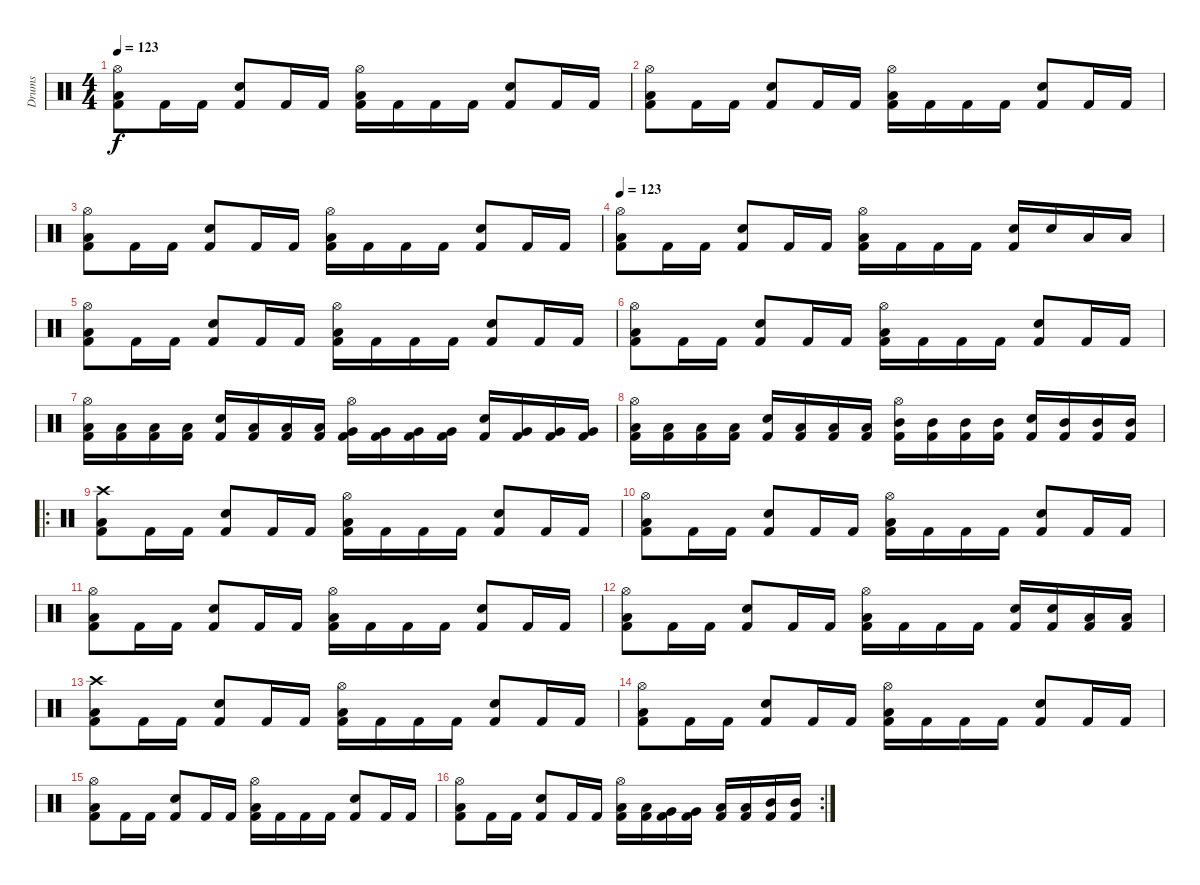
\track ("Drums" "Drums") {instrument percussion}
\staff {score}
\articulation defaults
\ts (4 4)
\tempo 123
\clef neutral
\ks c
("Hi-Hat (open)" "Low Floor Tom (hit)" "Kick (hit) 2").8{dy f} "Kick (hit) 2".16 "Kick (hit) 2".16 ("Snare (hit) 2" "Kick (hit) 2").8 "Kick (hit) 2".16 "Kick (hit) 2".16 ("Hi-Hat (open)" "Low Floor Tom (hit)" "Kick (hit) 2").16 "Kick (hit) 2".16 "Kick (hit) 2".16 "Kick (hit) 2".16 ("Snare (hit) 2" "Kick (hit) 2").8 "Kick (hit) 2".16 "Kick (hit) 2".16 |
("Hi-Hat (open)" "Low Floor Tom (hit)" "Kick (hit) 2").8 "Kick (hit) 2".16 "Kick (hit) 2".16 ("Snare (hit) 2" "Kick (hit) 2").8 "Kick (hit) 2".16 "Kick (hit) 2".16 ("Hi-Hat (open)" "Low Floor Tom (hit)" "Kick (hit) 2").16 "Kick (hit) 2".16 "Kick (hit) 2".16 "Kick (hit) 2".16 ("Snare (hit) 2" "Kick (hit) 2").8 "Kick (hit) 2".16 "Kick (hit) 2".16 |
("Hi-Hat (open)" "Low Floor Tom (hit)" "Kick (hit) 2").8 "Kick (hit) 2".16 "Kick (hit) 2".16 ("Snare (hit) 2" "Kick (hit) 2").8 "Kick (hit) 2".16 "Kick (hit) 2".16 ("Hi-Hat (open)" "Low Floor Tom (hit)" "Kick (hit) 2").16 "Kick (hit) 2".16 "Kick (hit) 2".16 "Kick (hit) 2".16 ("Snare (hit) 2" "Kick (hit) 2").8 "Kick (hit) 2".16 "Kick (hit) 2".16 |
\tempo 123
("Hi-Hat (open)" "Low Floor Tom (hit)" "Kick (hit) 2").8 "Kick (hit) 2".16 "Kick (hit) 2".16 ("Snare (hit) 2" "Kick (hit) 2").8 "Kick (hit) 2".16 "Kick (hit) 2".16 ("Hi-Hat (open)" "Low Floor Tom (hit)" "Kick (hit) 2").16 "Kick (hit) 2".16 "Kick (hit) 2".16 "Kick (hit) 2".16 ("Snare (hit) 2" "Kick (hit) 2").16 "Snare (hit) 2".16 "Low Tom (hit)".16 "Low Tom (hit)".16 |
("Hi-Hat (open)" "Low Floor Tom (hit)" "Kick (hit) 2").8 "Kick (hit) 2".16 "Kick (hit) 2".16 ("Snare (hit) 2" "Kick (hit) 2").8 "Kick (hit) 2".16 "Kick (hit) 2".16 ("Hi-Hat (open)" "Low Floor Tom (hit)" "Kick (hit) 2").16 "Kick (hit) 2".16 "Kick (hit) 2".16 "Kick (hit) 2".16 ("Snare (hit) 2" "Kick (hit) 2").8 "Kick (hit) 2".16 "Kick (hit) 2".16 |
("Hi-Hat (open)" "Low Floor Tom (hit)" "Kick (hit) 2").8 "Kick (hit) 2".16 "Kick (hit) 2".16 ("Snare (hit) 2" "Kick (hit) 2").8 "Kick (hit) 2".16 "Kick (hit) 2".16 ("Hi-Hat (open)" "Low Floor Tom (hit)" "Kick (hit) 2").16 "Kick (hit) 2".16 "Kick (hit) 2".16 "Kick (hit) 2".16 ("Snare (hit) 2" "Kick (hit) 2").8 "Kick (hit) 2".16 "Kick (hit) 2".16 |
("Hi-Hat (open)" "Low Floor Tom (hit)" "Kick (hit) 2").16 ("Low Floor Tom (hit)" "Kick (hit) 2").16 ("Low Floor Tom (hit)" "Kick (hit) 2").16 ("Low Floor Tom (hit)" "Kick (hit) 2").16 ("Snare (hit) 2" "Kick (hit) 2").16 ("Low Floor Tom (hit)" "Kick (hit) 2").16 ("Low Floor Tom (hit)" "Kick (hit) 2").16 ("Low Floor Tom (hit)" "Kick (hit) 2").16 ("Hi-Hat (open)" "Very Low Tom (hit)" "Kick (hit) 2").16 ("Very Low Tom (hit)" "Kick (hit) 2").16 ("Very Low Tom (hit)" "Kick (hit) 2").16 ("Very Low Tom (hit)" "Kick (hit) 2").16 ("Snare (hit) 2" "Kick (hit) 2").16 ("Very Low Tom (hit)" "Kick (hit) 2").16 ("Very Low Tom (hit)" "Kick (hit) 2").16 ("Very Low Tom (hit)" "Kick (hit) 2").16 |
("Hi-Hat (open)" "Low Tom (hit)" "Kick (hit) 2").16 ("Low Tom (hit)" "Kick (hit) 2").16 ("Low Tom (hit)" "Kick (hit) 2").16 ("Low Tom (hit)" "Kick (hit) 2").16 ("Snare (hit) 2" "Kick (hit) 2").16 ("Low Tom (hit)" "Kick (hit) 2").16 ("Low Tom (hit)" "Kick (hit) 2").16 ("Low Tom (hit)" "Kick (hit) 2").16 ("Hi-Hat (open)" "Mid Tom (hit)" "Kick (hit) 2").16 ("Mid Tom (hit)" "Kick (hit) 2").16 ("Mid Tom (hit)" "Kick (hit) 2").16 ("Mid Tom (hit)" "Kick (hit) 2").16 ("Snare (hit) 2" "Kick (hit) 2").16 ("Mid Tom (hit)" "Kick (hit) 2").16 ("Mid Tom (hit)" "Kick (hit) 2").16 ("Mid Tom (hit)" "Kick (hit) 2").16 |
\ro
("Crash high (hit)" "Low Floor Tom (hit)" "Kick (hit) 2").8 "Kick (hit) 2".16 "Kick (hit) 2".16 ("Snare (hit) 2" "Kick (hit) 2").8 "Kick (hit) 2".16 "Kick (hit) 2".16 ("Hi-Hat (open)" "Low Floor Tom (hit)" "Kick (hit) 2").16 "Kick (hit) 2".16 "Kick (hit) 2".16 "Kick (hit) 2".16 ("Snare (hit) 2" "Kick (hit) 2").8 "Kick (hit) 2".16 "Kick (hit) 2".16 |
("Hi-Hat (open)" "Low Floor Tom (hit)" "Kick (hit) 2").8 "Kick (hit) 2".16 "Kick (hit) 2".16 ("Snare (hit) 2" "Kick (hit) 2").8 "Kick (hit) 2".16 "Kick (hit) 2".16 ("Hi-Hat (open)" "Low Floor Tom (hit)" "Kick (hit) 2").16 "Kick (hit) 2".16 "Kick (hit) 2".16 "Kick (hit) 2".16 ("Snare (hit) 2" "Kick (hit) 2").8 "Kick (hit) 2".16 "Kick (hit) 2".16 |
("Hi-Hat (open)" "Low Floor Tom (hit)" "Kick (hit) 2").8 "Kick (hit) 2".16 "Kick (hit) 2".16 ("Snare (hit) 2" "Kick (hit) 2").8 "Kick (hit) 2".16 "Kick (hit) 2".16 ("Hi-Hat (open)" "Low Floor Tom (hit)" "Kick (hit) 2").16 "Kick (hit) 2".16 "Kick (hit) 2".16 "Kick (hit) 2".16 ("Snare (hit) 2" "Kick (hit) 2").8 "Kick (hit) 2".16 "Kick (hit) 2".16 |
("Hi-Hat (open)" "Low Floor Tom (hit)" "Kick (hit) 2").8 "Kick (hit) 2".16 "Kick (hit) 2".16 ("Snare (hit) 2" "Kick (hit) 2").8 "Kick (hit) 2".16 "Kick (hit) 2".16 ("Hi-Hat (open)" "Low Floor Tom (hit)" "Kick (hit) 2").16 "Kick (hit) 2".16 "Kick (hit) 2".16 "Kick (hit) 2".16 ("Snare (hit) 2" "Kick (hit) 2").16 ("Snare (hit) 2" "Kick (hit) 2").16 ("Low Tom (hit)" "Kick (hit) 2").16 ("Low Tom (hit)" "Kick (hit) 2").16 |
("Crash high (hit)" "Low Floor Tom (hit)" "Kick (hit) 2").8 "Kick (hit) 2".16 "Kick (hit) 2".16 ("Snare (hit) 2" "Kick (hit) 2").8 "Kick (hit) 2".16 "Kick (hit) 2".16 ("Hi-Hat (open)" "Low Floor Tom (hit)" "Kick (hit) 2").16 "Kick (hit) 2".16 "Kick (hit) 2".16 "Kick (hit) 2".16 ("Snare (hit) 2" "Kick (hit) 2").8 "Kick (hit) 2".16 "Kick (hit) 2".16 |
("Hi-Hat (open)" "Low Floor Tom (hit)" "Kick (hit) 2").8 "Kick (hit) 2".16 "Kick (hit) 2".16 ("Snare (hit) 2" "Kick (hit) 2").8 "Kick (hit) 2".16 "Kick (hit) 2".16 ("Hi-Hat (open)" "Low Floor Tom (hit)" "Kick (hit) 2").16 "Kick (hit) 2".16 "Kick (hit) 2".16 "Kick (hit) 2".16 ("Snare (hit) 2" "Kick (hit) 2").8 "Kick (hit) 2".16 "Kick (hit) 2".16 |
("Hi-Hat (open)" "Low Floor Tom (hit)" "Kick (hit) 2").8 "Kick (hit) 2".16 "Kick (hit) 2".16 ("Snare (hit) 2" "Kick (hit) 2").8 "Kick (hit) 2".16 "Kick (hit) 2".16 ("Hi-Hat (open)" "Low Floor Tom (hit)" "Kick (hit) 2").16 "Kick (hit) 2".16 "Kick (hit) 2".16 "Kick (hit) 2".16 ("Snare (hit) 2" "Kick (hit) 2").8 "Kick (hit) 2".16 "Kick (hit) 2".16 |
\rc 2
("Hi-Hat (open)" "Low Floor Tom (hit)" "Kick (hit) 2").8 "Kick (hit) 2".16 "Kick (hit) 2".16 ("Snare (hit) 2" "Kick (hit) 2").8 "Kick (hit) 2".16 "Kick (hit) 2".16 ("Hi-Hat (open)" "Low Floor Tom (hit)" "Kick (hit) 2").16 ("Low Floor Tom (hit)" "Kick (hit) 2").16 ("Very Low Tom (hit)" "Kick (hit) 2").16 ("Very Low Tom (hit)" "Kick (hit) 2").16 ("Low Tom (hit)" "Kick (hit) 2").16 ("Low Tom (hit)" "Kick (hit) 2").16 ("Mid Tom (hit)" "Kick (hit) 2").16 ("Mid Tom (hit)" "Kick (hit) 2").16
